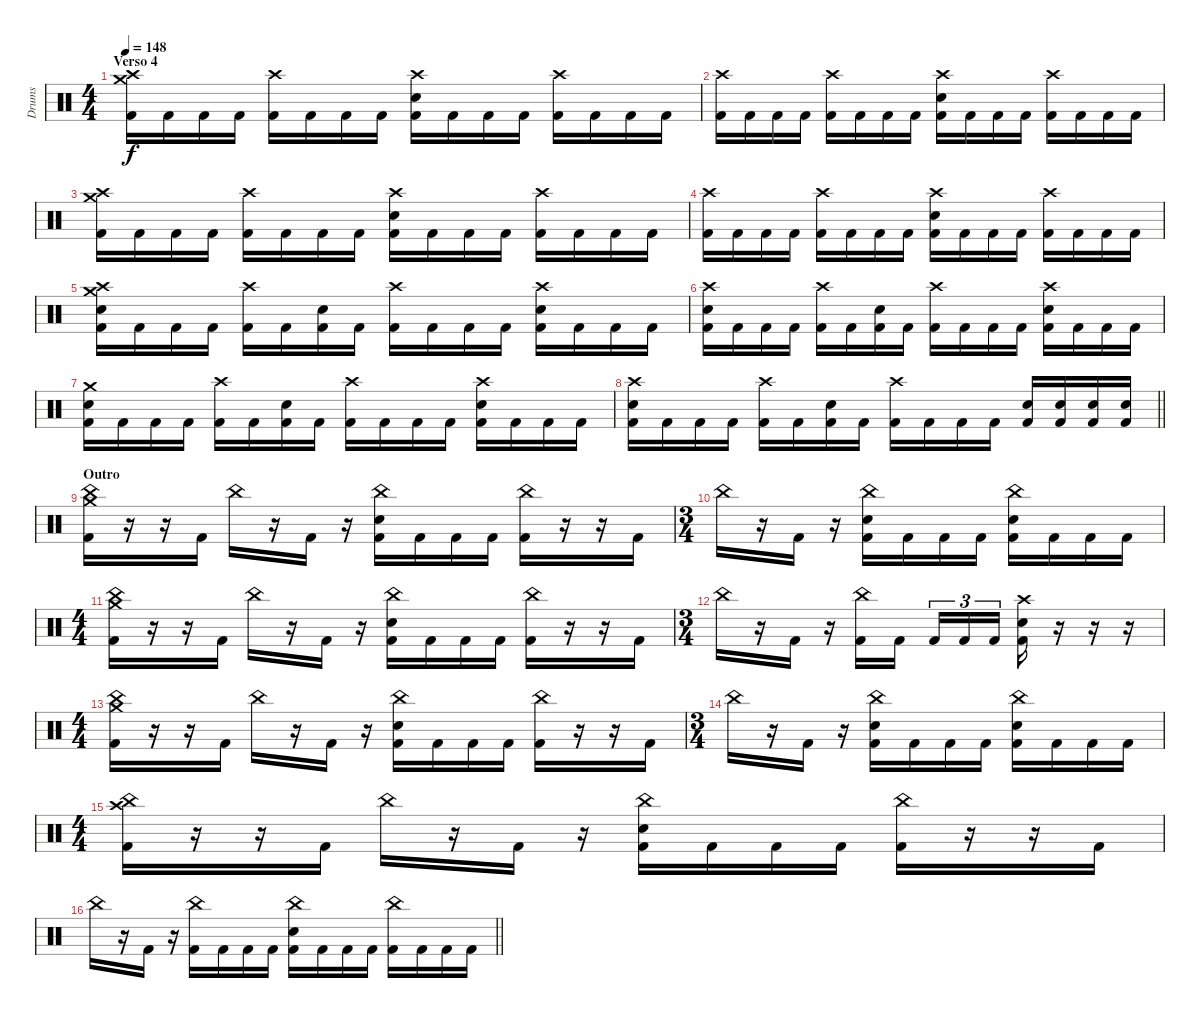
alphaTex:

\track ("Drums" "Drums") {instrument percussion}
\staff {score}
\articulation defaults
\ts (4 4)
\section ("" "Verso 4")
\tempo 148
\clef neutral
\ks c
("Crash high (hit)" "Crash medium (hit)" "Kick (hit) 2").16{dy f} "Kick (hit) 2".16 "Kick (hit) 2".16 "Kick (hit) 2".16 ("Crash high (hit)" "Kick (hit) 2").16 "Kick (hit) 2".16 "Kick (hit) 2".16 "Kick (hit) 2".16 ("Crash high (hit)" "Electric Snare (hit)" "Kick (hit) 2").16 "Kick (hit) 2".16 "Kick (hit) 2".16 "Kick (hit) 2".16 ("Crash high (hit)" "Kick (hit) 2").16 "Kick (hit) 2".16 "Kick (hit) 2".16 "Kick (hit) 2".16 |
("Crash high (hit)" "Kick (hit) 2").16 "Kick (hit) 2".16 "Kick (hit) 2".16 "Kick (hit) 2".16 ("Crash high (hit)" "Kick (hit) 2").16 "Kick (hit) 2".16 "Kick (hit) 2".16 "Kick (hit) 2".16 ("Crash high (hit)" "Electric Snare (hit)" "Kick (hit) 2").16 "Kick (hit) 2".16 "Kick (hit) 2".16 "Kick (hit) 2".16 ("Crash high (hit)" "Kick (hit) 2").16 "Kick (hit) 2".16 "Kick (hit) 2".16 "Kick (hit) 2".16 |
("Crash high (hit)" "Crash medium (hit)" "Kick (hit) 2").16 "Kick (hit) 2".16 "Kick (hit) 2".16 "Kick (hit) 2".16 ("Crash high (hit)" "Kick (hit) 2").16 "Kick (hit) 2".16 "Kick (hit) 2".16 "Kick (hit) 2".16 ("Crash high (hit)" "Electric Snare (hit)" "Kick (hit) 2").16 "Kick (hit) 2".16 "Kick (hit) 2".16 "Kick (hit) 2".16 ("Crash high (hit)" "Kick (hit) 2").16 "Kick (hit) 2".16 "Kick (hit) 2".16 "Kick (hit) 2".16 |
("Crash high (hit)" "Kick (hit) 2").16 "Kick (hit) 2".16 "Kick (hit) 2".16 "Kick (hit) 2".16 ("Crash high (hit)" "Kick (hit) 2").16 "Kick (hit) 2".16 "Kick (hit) 2".16 "Kick (hit) 2".16 ("Crash high (hit)" "Electric Snare (hit)" "Kick (hit) 2").16 "Kick (hit) 2".16 "Kick (hit) 2".16 "Kick (hit) 2".16 ("Crash high (hit)" "Kick (hit) 2").16 "Kick (hit) 2".16 "Kick (hit) 2".16 "Kick (hit) 2".16 |
("Crash high (hit)" "Crash medium (hit)" "Electric Snare (hit)" "Kick (hit) 2").16 "Kick (hit) 2".16 "Kick (hit) 2".16 "Kick (hit) 2".16 ("Crash high (hit)" "Kick (hit) 2").16 "Kick (hit) 2".16 ("Electric Snare (hit)" "Kick (hit) 2").16 "Kick (hit) 2".16 ("Crash high (hit)" "Kick (hit) 2").16 "Kick (hit) 2".16 "Kick (hit) 2".16 "Kick (hit) 2".16 ("Crash high (hit)" "Electric Snare (hit)" "Kick (hit) 2").16 "Kick (hit) 2".16 "Kick (hit) 2".16 "Kick (hit) 2".16 |
("Crash high (hit)" "Electric Snare (hit)" "Kick (hit) 2").16 "Kick (hit) 2".16 "Kick (hit) 2".16 "Kick (hit) 2".16 ("Crash high (hit)" "Kick (hit) 2").16 "Kick (hit) 2".16 ("Electric Snare (hit)" "Kick (hit) 2").16 "Kick (hit) 2".16 ("Crash high (hit)" "Kick (hit) 2").16 "Kick (hit) 2".16 "Kick (hit) 2".16 "Kick (hit) 2".16 ("Crash high (hit)" "Electric Snare (hit)" "Kick (hit) 2").16 "Kick (hit) 2".16 "Kick (hit) 2".16 "Kick (hit) 2".16 |
("Crash medium (hit)" "Electric Snare (hit)" "Kick (hit) 2").16 "Kick (hit) 2".16 "Kick (hit) 2".16 "Kick (hit) 2".16 ("Crash high (hit)" "Kick (hit) 2").16 "Kick (hit) 2".16 ("Electric Snare (hit)" "Kick (hit) 2").16 "Kick (hit) 2".16 ("Crash high (hit)" "Kick (hit) 2").16 "Kick (hit) 2".16 "Kick (hit) 2".16 "Kick (hit) 2".16 ("Crash high (hit)" "Electric Snare (hit)" "Kick (hit) 2").16 "Kick (hit) 2".16 "Kick (hit) 2".16 "Kick (hit) 2".16 |
\barLineRight lightlight
("Crash high (hit)" "Electric Snare (hit)" "Kick (hit) 2").16 "Kick (hit) 2".16 "Kick (hit) 2".16 "Kick (hit) 2".16 ("Crash high (hit)" "Kick (hit) 2").16 "Kick (hit) 2".16 ("Electric Snare (hit)" "Kick (hit) 2").16 "Kick (hit) 2".16 ("Crash high (hit)" "Kick (hit) 2").16 "Kick (hit) 2".16 "Kick (hit) 2".16 "Kick (hit) 2".16 ("Electric Snare (hit)" "Kick (hit) 2").16 ("Electric Snare (hit)" "Kick (hit) 2").16 ("Electric Snare (hit)" "Kick (hit) 2").16 ("Electric Snare (hit)" "Kick (hit) 2").16 |
\section ("" "Outro")
("China (hit)" "Crash medium (hit)" "Kick (hit) 2").16 r.16 r.16 "Kick (hit) 2".16 "China (hit)".16 r.16 "Kick (hit) 2".16 r.16 ("China (hit)" "Electric Snare (hit)" "Kick (hit) 2").16 "Kick (hit) 2".16 "Kick (hit) 2".16 "Kick (hit) 2".16 ("China (hit)" "Kick (hit) 2").16 r.16 r.16 "Kick (hit) 2".16 |
\ts (3 4)
"China (hit)".16 r.16 "Kick (hit) 2".16 r.16 ("China (hit)" "Electric Snare (hit)" "Kick (hit) 2").16 "Kick (hit) 2".16 "Kick (hit) 2".16 "Kick (hit) 2".16 ("China (hit)" "Electric Snare (hit)" "Kick (hit) 2").16 "Kick (hit) 2".16 "Kick (hit) 2".16 "Kick (hit) 2".16 |
\ts (4 4)
("China (hit)" "Crash medium (hit)" "Kick (hit) 2").16 r.16 r.16 "Kick (hit) 2".16 "China (hit)".16 r.16 "Kick (hit) 2".16 r.16 ("China (hit)" "Electric Snare (hit)" "Kick (hit) 2").16 "Kick (hit) 2".16 "Kick (hit) 2".16 "Kick (hit) 2".16 ("China (hit)" "Kick (hit) 2").16 r.16 r.16 "Kick (hit) 2".16 |
\ts (3 4)
"China (hit)".16 r.16 "Kick (hit) 2".16 r.16 ("China (hit)" "Kick (hit) 2").16 "Kick (hit) 2".16{beam splitsecondary} "Kick (hit) 2".16{tu (3 2)} "Kick (hit) 2".16{tu (3 2)} "Kick (hit) 2".16{tu (3 2)} ("Crash high (hit)" "Electric Snare (hit)" "Kick (hit) 2").16 r.16 r.16 r.16 |
\ts (4 4)
("China (hit)" "Crash medium (hit)" "Kick (hit) 2").16 r.16 r.16 "Kick (hit) 2".16 "China (hit)".16 r.16 "Kick (hit) 2".16 r.16 ("China (hit)" "Electric Snare (hit)" "Kick (hit) 2").16 "Kick (hit) 2".16 "Kick (hit) 2".16 "Kick (hit) 2".16 ("China (hit)" "Kick (hit) 2").16 r.16 r.16 "Kick (hit) 2".16 |
\ts (3 4)
"China (hit)".16 r.16 "Kick (hit) 2".16 r.16 ("China (hit)" "Electric Snare (hit)" "Kick (hit) 2").16 "Kick (hit) 2".16 "Kick (hit) 2".16 "Kick (hit) 2".16 ("China (hit)" "Electric Snare (hit)" "Kick (hit) 2").16 "Kick (hit) 2".16 "Kick (hit) 2".16 "Kick (hit) 2".16 |
\ts (4 4)
("China (hit)" "Crash high (hit)" "Kick (hit) 2").16 r.16 r.16 "Kick (hit) 2".16 "China (hit)".16 r.16 "Kick (hit) 2".16 r.16 ("China (hit)" "Electric Snare (hit)" "Kick (hit) 2").16 "Kick (hit) 2".16 "Kick (hit) 2".16 "Kick (hit) 2".16 ("China (hit)" "Kick (hit) 2").16 r.16 r.16 "Kick (hit) 2".16 |
\barLineRight lightlight "China (hit)".16
r.16 "Kick (hit) 2".16 r.16 ("China (hit)" "Kick (hit) 2").16 "Kick (hit) 2".16 "Kick (hit) 2".16 "Kick (hit) 2".16 ("China (hit)" "Electric Snare (hit)" "Kick (hit) 2").16 "Kick (hit) 2".16 "Kick (hit) 2".16 "Kick (hit) 2".16 ("China (hit)" "Kick (hit) 2").16 "Kick (hit) 2".16 "Kick (hit) 2".16 "Kick (hit) 2".16
